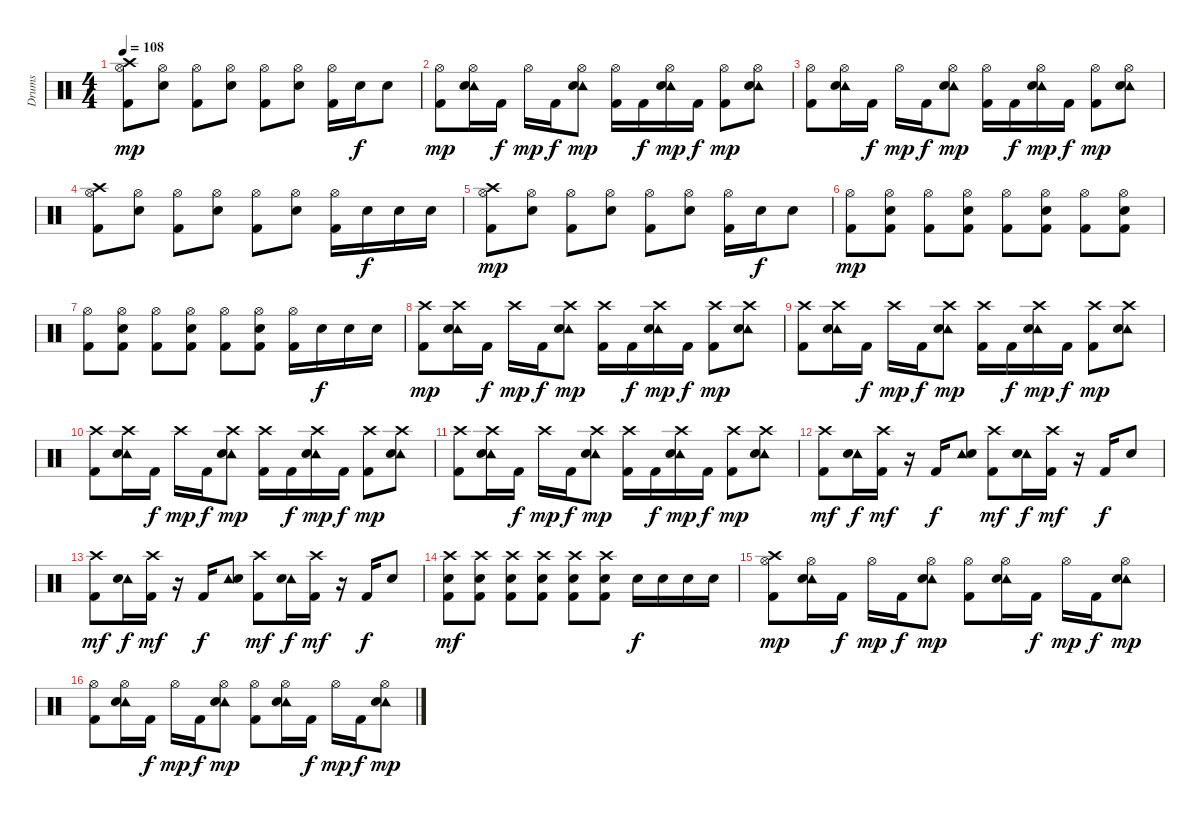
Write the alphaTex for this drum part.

\track ("Drums" "Drums") {instrument percussion}
\staff {score}
\articulation defaults
\ts (4 4)
\tempo 108
\clef neutral
\ks c
("Crash high (hit)" "Hi-Hat (open)" "Kick (hit) 2").8{dy mp} ("Hi-Hat (open)" "Snare (hit) 2").8 ("Hi-Hat (open)" "Kick (hit) 2").8 ("Hi-Hat (open)" "Snare (hit) 2").8 ("Hi-Hat (open)" "Kick (hit) 2").8 ("Hi-Hat (open)" "Snare (hit) 2").8 ("Hi-Hat (open)" "Kick (hit) 2").16 "Snare (hit) 2".16{dy f} "Snare (hit) 2".8 |
("Hi-Hat (open)" "Kick (hit) 2").8{dy mp} ("Tambourine (hit)" "Hi-Hat (open)" "Snare (hit) 2").16 "Kick (hit) 2".16{dy f} "Hi-Hat (open)".16{dy mp} "Kick (hit) 2".16{dy f} ("Tambourine (hit)" "Hi-Hat (open)" "Snare (hit) 2").8{dy mp} ("Hi-Hat (open)" "Kick (hit) 2").16 "Kick (hit) 2".16{dy f} ("Tambourine (hit)" "Hi-Hat (open)" "Snare (hit) 2").16{dy mp} "Kick (hit) 2".16{dy f} ("Hi-Hat (open)" "Kick (hit) 2").8{dy mp} ("Tambourine (hit)" "Hi-Hat (open)" "Snare (hit) 2").8 |
("Hi-Hat (open)" "Kick (hit) 2").8 ("Tambourine (hit)" "Hi-Hat (open)" "Snare (hit) 2").16 "Kick (hit) 2".16{dy f} "Hi-Hat (open)".16{dy mp} "Kick (hit) 2".16{dy f} ("Tambourine (hit)" "Hi-Hat (open)" "Snare (hit) 2").8{dy mp} ("Hi-Hat (open)" "Kick (hit) 2").16 "Kick (hit) 2".16{dy f} ("Tambourine (hit)" "Hi-Hat (open)" "Snare (hit) 2").16{dy mp} "Kick (hit) 2".16{dy f} ("Hi-Hat (open)" "Kick (hit) 2").8{dy mp} ("Tambourine (hit)" "Hi-Hat (open)" "Snare (hit) 2").8 |
("Crash high (hit)" "Hi-Hat (open)" "Kick (hit) 2").8 ("Hi-Hat (open)" "Snare (hit) 2").8 ("Hi-Hat (open)" "Kick (hit) 2").8 ("Hi-Hat (open)" "Snare (hit) 2").8 ("Hi-Hat (open)" "Kick (hit) 2").8 ("Hi-Hat (open)" "Snare (hit) 2").8 ("Hi-Hat (open)" "Kick (hit) 2").16 "Snare (hit) 2".16{dy f} "Snare (hit) 2".16 "Snare (hit) 2".16 |
("Crash high (hit)" "Hi-Hat (open)" "Kick (hit) 2").8{dy mp} ("Hi-Hat (open)" "Snare (hit) 2").8 ("Hi-Hat (open)" "Kick (hit) 2").8 ("Hi-Hat (open)" "Snare (hit) 2").8 ("Hi-Hat (open)" "Kick (hit) 2").8 ("Hi-Hat (open)" "Snare (hit) 2").8 ("Hi-Hat (open)" "Kick (hit) 2").16 "Snare (hit) 2".16{dy f} "Snare (hit) 2".8 |
("Hi-Hat (open)" "Kick (hit) 2").8{dy mp} ("Snare (hit) 2" "Hi-Hat (open)" "Kick (hit) 2").8 ("Hi-Hat (open)" "Kick (hit) 2").8 ("Snare (hit) 2" "Hi-Hat (open)" "Kick (hit) 2").8 ("Hi-Hat (open)" "Kick (hit) 2").8 ("Snare (hit) 2" "Hi-Hat (open)" "Kick (hit) 2").8 ("Hi-Hat (open)" "Kick (hit) 2").8 ("Snare (hit) 2" "Hi-Hat (open)" "Kick (hit) 2").8 |
("Hi-Hat (open)" "Kick (hit) 2").8 ("Snare (hit) 2" "Hi-Hat (open)" "Kick (hit) 2").8 ("Hi-Hat (open)" "Kick (hit) 2").8 ("Snare (hit) 2" "Hi-Hat (open)" "Kick (hit) 2").8 ("Hi-Hat (open)" "Kick (hit) 2").8 ("Snare (hit) 2" "Hi-Hat (open)" "Kick (hit) 2").8 ("Hi-Hat (open)" "Kick (hit) 2").16 "Snare (hit) 2".16{dy f} "Snare (hit) 2".16 "Snare (hit) 2".16 |
("Crash high (hit)" "Kick (hit) 2").8{dy mp} ("Tambourine (hit)" "Crash high (hit)" "Snare (hit) 2").16 "Kick (hit) 2".16{dy f} "Crash high (hit)".16{dy mp} "Kick (hit) 2".16{dy f} ("Tambourine (hit)" "Crash high (hit)" "Snare (hit) 2").8{dy mp} ("Crash high (hit)" "Kick (hit) 2").16 "Kick (hit) 2".16{dy f} ("Tambourine (hit)" "Crash high (hit)" "Snare (hit) 2").16{dy mp} "Kick (hit) 2".16{dy f} ("Crash high (hit)" "Kick (hit) 2").8{dy mp} ("Tambourine (hit)" "Crash high (hit)" "Snare (hit) 2").8 |
("Crash high (hit)" "Kick (hit) 2").8 ("Tambourine (hit)" "Crash high (hit)" "Snare (hit) 2").16 "Kick (hit) 2".16{dy f} "Crash high (hit)".16{dy mp} "Kick (hit) 2".16{dy f} ("Tambourine (hit)" "Crash high (hit)" "Snare (hit) 2").8{dy mp} ("Crash high (hit)" "Kick (hit) 2").16 "Kick (hit) 2".16{dy f} ("Tambourine (hit)" "Crash high (hit)" "Snare (hit) 2").16{dy mp} "Kick (hit) 2".16{dy f} ("Crash high (hit)" "Kick (hit) 2").8{dy mp} ("Tambourine (hit)" "Crash high (hit)" "Snare (hit) 2").8 |
("Crash high (hit)" "Kick (hit) 2").8 ("Tambourine (hit)" "Crash high (hit)" "Snare (hit) 2").16 "Kick (hit) 2".16{dy f} "Crash high (hit)".16{dy mp} "Kick (hit) 2".16{dy f} ("Tambourine (hit)" "Crash high (hit)" "Snare (hit) 2").8{dy mp} ("Crash high (hit)" "Kick (hit) 2").16 "Kick (hit) 2".16{dy f} ("Tambourine (hit)" "Crash high (hit)" "Snare (hit) 2").16{dy mp} "Kick (hit) 2".16{dy f} ("Crash high (hit)" "Kick (hit) 2").8{dy mp} ("Tambourine (hit)" "Crash high (hit)" "Snare (hit) 2").8 |
("Crash high (hit)" "Kick (hit) 2").8 ("Tambourine (hit)" "Crash high (hit)" "Snare (hit) 2").16 "Kick (hit) 2".16{dy f} "Crash high (hit)".16{dy mp} "Kick (hit) 2".16{dy f} ("Tambourine (hit)" "Crash high (hit)" "Snare (hit) 2").8{dy mp} ("Crash high (hit)" "Kick (hit) 2").16 "Kick (hit) 2".16{dy f} ("Tambourine (hit)" "Crash high (hit)" "Snare (hit) 2").16{dy mp} "Kick (hit) 2".16{dy f} ("Crash high (hit)" "Kick (hit) 2").8{dy mp} ("Tambourine (hit)" "Crash high (hit)" "Snare (hit) 2").8 |
("Crash high (hit)" "Kick (hit) 2").8{dy mf} ("Tambourine (hit)" "Snare (hit) 2").16{dy f} ("Crash high (hit)" "Kick (hit) 2").16{dy mf} r.16 "Kick (hit) 2".16{dy f} ("Tambourine (hit)" "Snare (hit) 2").8 ("Crash high (hit)" "Kick (hit) 2").8{dy mf} ("Tambourine (hit)" "Snare (hit) 2").16{dy f} ("Crash high (hit)" "Kick (hit) 2").16{dy mf} r.16 "Kick (hit) 2".16{dy f} "Snare (hit) 2".8 |
("Crash high (hit)" "Kick (hit) 2").8{dy mf} ("Tambourine (hit)" "Snare (hit) 2").16{dy f} ("Crash high (hit)" "Kick (hit) 2").16{dy mf} r.16 "Kick (hit) 2".16{dy f} ("Tambourine (hit)" "Snare (hit) 2").8 ("Crash high (hit)" "Kick (hit) 2").8{dy mf} ("Tambourine (hit)" "Snare (hit) 2").16{dy f} ("Crash high (hit)" "Kick (hit) 2").16{dy mf} r.16 "Kick (hit) 2".16{dy f} "Snare (hit) 2".8 |
("Crash high (hit)" "Snare (hit) 2" "Kick (hit) 2").8{dy mf} ("Crash high (hit)" "Snare (hit) 2" "Kick (hit) 2").8 ("Crash high (hit)" "Snare (hit) 2" "Kick (hit) 2").8 ("Crash high (hit)" "Snare (hit) 2" "Kick (hit) 2").8 ("Crash high (hit)" "Snare (hit) 2" "Kick (hit) 2").8 ("Crash high (hit)" "Snare (hit) 2" "Kick (hit) 2").8 "Snare (hit) 2".16{dy f} "Snare (hit) 2".16 "Snare (hit) 2".16 "Snare (hit) 2".16 |
("Crash high (hit)" "Hi-Hat (open)" "Kick (hit) 2").8{dy mp} ("Tambourine (hit)" "Hi-Hat (open)" "Snare (hit) 2").16 "Kick (hit) 2".16{dy f} "Hi-Hat (open)".16{dy mp} "Kick (hit) 2".16{dy f} ("Tambourine (hit)" "Hi-Hat (open)" "Snare (hit) 2").8{dy mp} ("Hi-Hat (open)" "Kick (hit) 2").8 ("Tambourine (hit)" "Hi-Hat (open)" "Snare (hit) 2").16 "Kick (hit) 2".16{dy f} "Hi-Hat (open)".16{dy mp} "Kick (hit) 2".16{dy f} ("Tambourine (hit)" "Hi-Hat (open)" "Snare (hit) 2").8{dy mp} |
("Hi-Hat (open)" "Kick (hit) 2").8 ("Tambourine (hit)" "Hi-Hat (open)" "Snare (hit) 2").16 "Kick (hit) 2".16{dy f} "Hi-Hat (open)".16{dy mp} "Kick (hit) 2".16{dy f} ("Tambourine (hit)" "Hi-Hat (open)" "Snare (hit) 2").8{dy mp} ("Hi-Hat (open)" "Kick (hit) 2").8 ("Tambourine (hit)" "Hi-Hat (open)" "Snare (hit) 2").16 "Kick (hit) 2".16{dy f} "Hi-Hat (open)".16{dy mp} "Kick (hit) 2".16{dy f} ("Tambourine (hit)" "Hi-Hat (open)" "Snare (hit) 2").8{dy mp}
